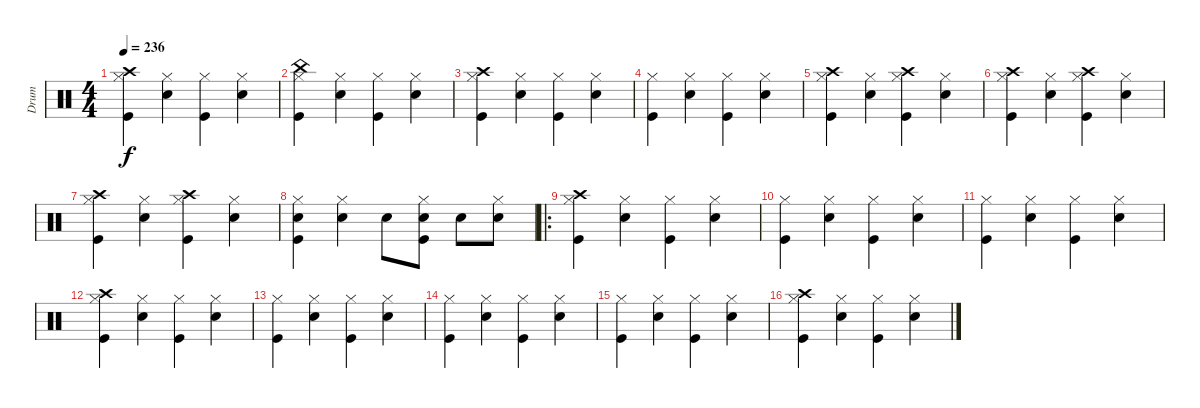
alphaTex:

\track ("Drum" "Drum") {instrument percussion}
\staff {score}
\articulation defaults
\ts (4 4)
\tempo 236
\clef neutral
\ks c
("Crash high (hit)" "Hi-Hat (closed)" "Kick (hit)").4{dy f} ("Hi-Hat (closed)" "Snare (hit) 2").4 ("Hi-Hat (closed)" "Kick (hit)").4 ("Hi-Hat (closed)" "Snare (hit) 2").4 |
("China (hit)" "Hi-Hat (closed)" "Kick (hit)").4 ("Hi-Hat (closed)" "Snare (hit) 2").4 ("Hi-Hat (closed)" "Kick (hit)").4 ("Hi-Hat (closed)" "Snare (hit) 2").4 |
("Crash high (hit)" "Hi-Hat (closed)" "Kick (hit)").4 ("Hi-Hat (closed)" "Snare (hit) 2").4 ("Hi-Hat (closed)" "Kick (hit)").4 ("Hi-Hat (closed)" "Snare (hit) 2").4 |
("Hi-Hat (closed)" "Kick (hit)").4 ("Hi-Hat (closed)" "Snare (hit) 2").4 ("Hi-Hat (closed)" "Kick (hit)").4 ("Hi-Hat (closed)" "Snare (hit) 2").4 |
("Crash high (hit)" "Hi-Hat (closed)" "Kick (hit)").4 ("Hi-Hat (closed)" "Snare (hit) 2").4 ("Crash high (hit)" "Hi-Hat (closed)" "Kick (hit)").4 ("Hi-Hat (closed)" "Snare (hit) 2").4 |
("Crash high (hit)" "Hi-Hat (closed)" "Kick (hit)").4 ("Hi-Hat (closed)" "Snare (hit) 2").4 ("Crash high (hit)" "Hi-Hat (closed)" "Kick (hit)").4 ("Hi-Hat (closed)" "Snare (hit) 2").4 |
("Crash high (hit)" "Hi-Hat (closed)" "Kick (hit)").4 ("Hi-Hat (closed)" "Snare (hit) 2").4 ("Crash high (hit)" "Hi-Hat (closed)" "Kick (hit)").4 ("Hi-Hat (closed)" "Snare (hit) 2").4 |
("Hi-Hat (closed)" "Snare (hit) 2" "Kick (hit)").4 ("Hi-Hat (closed)" "Snare (hit) 2").4 "Snare (hit) 2".8 ("Hi-Hat (closed)" "Snare (hit) 2" "Kick (hit)").8 "Snare (hit) 2".8 ("Hi-Hat (closed)" "Snare (hit) 2").8 |
\ro
("Crash high (hit)" "Hi-Hat (closed)" "Kick (hit)").4 ("Hi-Hat (closed)" "Snare (hit) 2").4 ("Hi-Hat (closed)" "Kick (hit)").4 ("Hi-Hat (closed)" "Snare (hit) 2").4 |
("Hi-Hat (closed)" "Kick (hit)").4 ("Hi-Hat (closed)" "Snare (hit) 2").4 ("Hi-Hat (closed)" "Kick (hit)").4 ("Hi-Hat (closed)" "Snare (hit) 2").4 |
("Hi-Hat (closed)" "Kick (hit)").4 ("Hi-Hat (closed)" "Snare (hit) 2").4 ("Hi-Hat (closed)" "Kick (hit)").4 ("Hi-Hat (closed)" "Snare (hit) 2").4 |
("Crash high (hit)" "Hi-Hat (closed)" "Kick (hit)").4 ("Hi-Hat (closed)" "Snare (hit) 2").4 ("Hi-Hat (closed)" "Kick (hit)").4 ("Hi-Hat (closed)" "Snare (hit) 2").4 |
("Hi-Hat (closed)" "Kick (hit)").4 ("Hi-Hat (closed)" "Snare (hit) 2").4 ("Hi-Hat (closed)" "Kick (hit)").4 ("Hi-Hat (closed)" "Snare (hit) 2").4 |
("Hi-Hat (closed)" "Kick (hit)").4 ("Hi-Hat (closed)" "Snare (hit) 2").4 ("Hi-Hat (closed)" "Kick (hit)").4 ("Hi-Hat (closed)" "Snare (hit) 2").4 |
("Hi-Hat (closed)" "Kick (hit)").4 ("Hi-Hat (closed)" "Snare (hit) 2").4 ("Hi-Hat (closed)" "Kick (hit)").4 ("Hi-Hat (closed)" "Snare (hit) 2").4 |
("Crash high (hit)" "Hi-Hat (closed)" "Kick (hit)").4 ("Hi-Hat (closed)" "Snare (hit) 2").4 ("Hi-Hat (closed)" "Kick (hit)").4 ("Hi-Hat (closed)" "Snare (hit) 2").4
